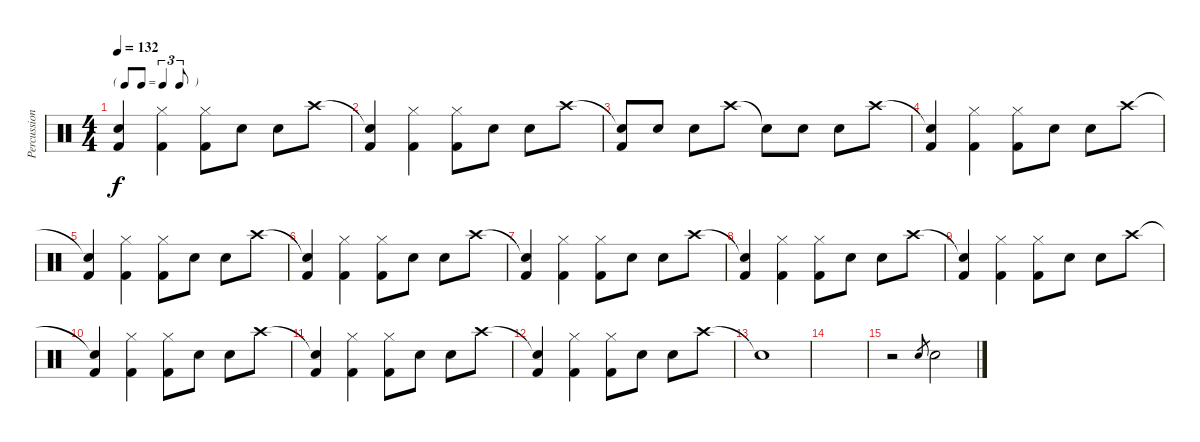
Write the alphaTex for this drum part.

\track ("Percussion" "Percussion") {instrument percussion}
\staff {score}
\articulation defaults
\ts (4 4)
\tf triplet8th
\tempo 132
\clef neutral
\ks c
("Snare (hit)"{t} "Kick (hit) 2").4{dy f} ("Hi-Hat (closed)" "Kick (hit) 2").4 ("Hi-Hat (closed)" "Kick (hit) 2").8 "Snare (hit) 2".8 "Snare (hit) 2".8 "Crash high (hit)".8 |
("Snare (hit)"{t} "Kick (hit) 2").4 ("Hi-Hat (closed)" "Kick (hit) 2").4 ("Hi-Hat (closed)" "Kick (hit) 2").8 "Snare (hit) 2".8 "Snare (hit) 2".8 "Crash high (hit)".8 |
("Snare (hit)"{t} "Kick (hit) 2").8 "Snare (hit) 2".8 "Snare (hit) 2".8 "Crash high (hit)".8 "Snare (hit)"{t}.8 "Snare (hit) 2".8 "Snare (hit) 2".8 "Crash high (hit)".8 |
("Snare (hit)"{t} "Kick (hit) 2").4 ("Hi-Hat (closed)" "Kick (hit) 2").4 ("Hi-Hat (closed)" "Kick (hit) 2").8 "Snare (hit) 2".8 "Snare (hit) 2".8 "Crash high (hit)".8 |
("Snare (hit)"{t} "Kick (hit) 2").4 ("Hi-Hat (closed)" "Kick (hit) 2").4 ("Hi-Hat (closed)" "Kick (hit) 2").8 "Snare (hit) 2".8 "Snare (hit) 2".8 "Crash high (hit)".8 |
("Snare (hit)"{t} "Kick (hit) 2").4 ("Hi-Hat (closed)" "Kick (hit) 2").4 ("Hi-Hat (closed)" "Kick (hit) 2").8 "Snare (hit) 2".8 "Snare (hit) 2".8 "Crash high (hit)".8 |
("Snare (hit)"{t} "Kick (hit) 2").4 ("Hi-Hat (closed)" "Kick (hit) 2").4 ("Hi-Hat (closed)" "Kick (hit) 2").8 "Snare (hit) 2".8 "Snare (hit) 2".8 "Crash high (hit)".8 |
("Snare (hit)"{t} "Kick (hit) 2").4 ("Hi-Hat (closed)" "Kick (hit) 2").4 ("Hi-Hat (closed)" "Kick (hit) 2").8 "Snare (hit) 2".8 "Snare (hit) 2".8 "Crash high (hit)".8 |
("Snare (hit)"{t} "Kick (hit) 2").4 ("Hi-Hat (closed)" "Kick (hit) 2").4 ("Hi-Hat (closed)" "Kick (hit) 2").8 "Snare (hit) 2".8 "Snare (hit) 2".8 "Crash high (hit)".8 |
("Snare (hit)"{t} "Kick (hit) 2").4 ("Hi-Hat (closed)" "Kick (hit) 2").4 ("Hi-Hat (closed)" "Kick (hit) 2").8 "Snare (hit) 2".8 "Snare (hit) 2".8 "Crash high (hit)".8 |
("Snare (hit)"{t} "Kick (hit) 2").4 ("Hi-Hat (closed)" "Kick (hit) 2").4 ("Hi-Hat (closed)" "Kick (hit) 2").8 "Snare (hit) 2".8 "Snare (hit) 2".8 "Crash high (hit)".8 |
("Snare (hit)"{t} "Kick (hit) 2").4 ("Hi-Hat (closed)" "Kick (hit) 2").4 ("Hi-Hat (closed)" "Kick (hit) 2").8 "Snare (hit) 2".8 "Snare (hit) 2".8 "Crash high (hit)".8 |
"Snare (hit)"{t}.1 |
|
r.2 "Snare (hit) 2".8{gr} "Snare (hit) 2".2
